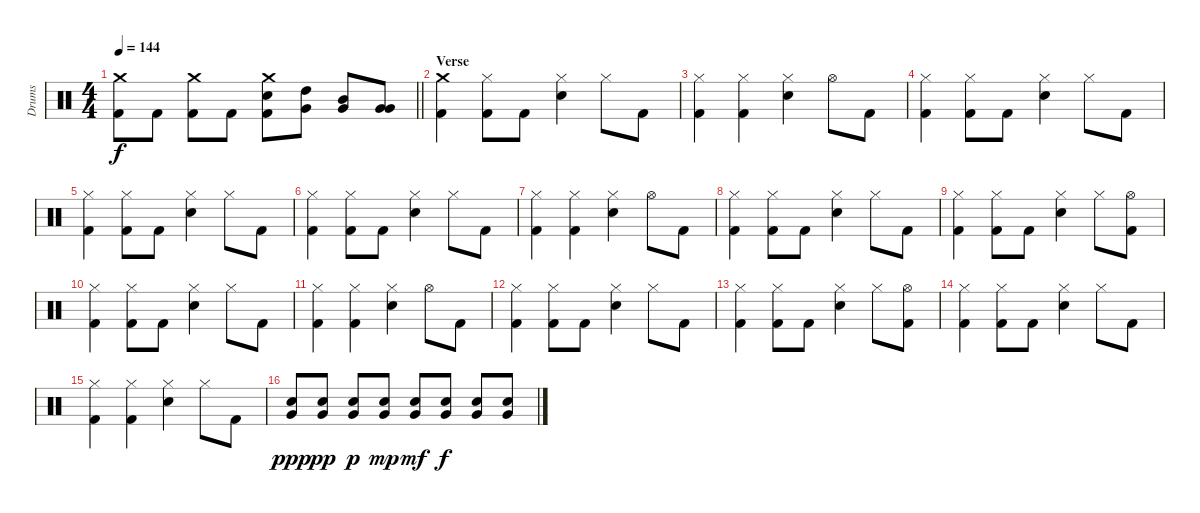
\track ("Drums" "Drums") {instrument percussion}
\staff {score}
\articulation defaults
\ts (4 4)
\tempo 144
\clef neutral
\barLineRight lightlight
\ks c
("Crash medium (hit)" "Kick (hit) 2").8{dy f} "Kick (hit) 2".8 ("Crash medium (hit)" "Kick (hit) 2").8 "Kick (hit) 2".8 ("Crash medium (hit)" "Electric Snare (hit)" "Kick (hit) 2").8 ("High Tom (hit)" "Very Low Tom (hit)").8 ("Mid Tom (hit)" "Very Low Tom (hit)").8 ("Very Low Tom (hit)" "Very Low Tom (hit)").8 |
\section ("" "Verse")
("Crash medium (hit)" "Kick (hit) 2").4 ("Hi-Hat (closed)" "Kick (hit) 2").8 "Kick (hit) 2".8 ("Hi-Hat (closed)" "Electric Snare (hit)").4 "Hi-Hat (closed)".8 "Kick (hit) 2".8 |
("Hi-Hat (closed)" "Kick (hit) 2").4 ("Hi-Hat (closed)" "Kick (hit) 2").4 ("Hi-Hat (closed)" "Electric Snare (hit)").4 "Hi-Hat (open)".8 "Kick (hit) 2".8 |
("Hi-Hat (closed)" "Kick (hit) 2").4 ("Hi-Hat (closed)" "Kick (hit) 2").8 "Kick (hit) 2".8 ("Hi-Hat (closed)" "Electric Snare (hit)").4 "Hi-Hat (closed)".8 "Kick (hit) 2".8 |
("Hi-Hat (closed)" "Kick (hit) 2").4 ("Hi-Hat (closed)" "Kick (hit) 2").8 "Kick (hit) 2".8 ("Hi-Hat (closed)" "Electric Snare (hit)").4 "Hi-Hat (closed)".8 "Kick (hit) 2".8 |
("Hi-Hat (closed)" "Kick (hit) 2").4 ("Hi-Hat (closed)" "Kick (hit) 2").8 "Kick (hit) 2".8 ("Hi-Hat (closed)" "Electric Snare (hit)").4 "Hi-Hat (closed)".8 "Kick (hit) 2".8 |
("Hi-Hat (closed)" "Kick (hit) 2").4 ("Hi-Hat (closed)" "Kick (hit) 2").4 ("Hi-Hat (closed)" "Electric Snare (hit)").4 "Hi-Hat (open)".8 "Kick (hit) 2".8 |
("Hi-Hat (closed)" "Kick (hit) 2").4 ("Hi-Hat (closed)" "Kick (hit) 2").8 "Kick (hit) 2".8 ("Hi-Hat (closed)" "Electric Snare (hit)").4 "Hi-Hat (closed)".8 "Kick (hit) 2".8 |
("Hi-Hat (closed)" "Kick (hit) 2").4 ("Hi-Hat (closed)" "Kick (hit) 2").8 "Kick (hit) 2".8 ("Hi-Hat (closed)" "Electric Snare (hit)").4 "Hi-Hat (closed)".8 ("Hi-Hat (open)" "Kick (hit) 2").8 |
("Hi-Hat (closed)" "Kick (hit) 2").4 ("Hi-Hat (closed)" "Kick (hit) 2").8 "Kick (hit) 2".8 ("Hi-Hat (closed)" "Electric Snare (hit)").4 "Hi-Hat (closed)".8 "Kick (hit) 2".8 |
("Hi-Hat (closed)" "Kick (hit) 2").4 ("Hi-Hat (closed)" "Kick (hit) 2").4 ("Hi-Hat (closed)" "Electric Snare (hit)").4 "Hi-Hat (open)".8 "Kick (hit) 2".8 |
("Hi-Hat (closed)" "Kick (hit) 2").4 ("Hi-Hat (closed)" "Kick (hit) 2").8 "Kick (hit) 2".8 ("Hi-Hat (closed)" "Electric Snare (hit)").4 "Hi-Hat (closed)".8 "Kick (hit) 2".8 |
("Hi-Hat (closed)" "Kick (hit) 2").4 ("Hi-Hat (closed)" "Kick (hit) 2").8 "Kick (hit) 2".8 ("Hi-Hat (closed)" "Electric Snare (hit)").4 "Hi-Hat (closed)".8 ("Hi-Hat (open)" "Kick (hit) 2").8 |
("Hi-Hat (closed)" "Kick (hit) 2").4 ("Hi-Hat (closed)" "Kick (hit) 2").8 "Kick (hit) 2".8 ("Hi-Hat (closed)" "Electric Snare (hit)").4 "Hi-Hat (closed)".8 "Kick (hit) 2".8 |
("Hi-Hat (closed)" "Kick (hit) 2").4 ("Hi-Hat (closed)" "Kick (hit) 2").4 ("Hi-Hat (closed)" "Electric Snare (hit)").4 "Hi-Hat (closed)".8 "Kick (hit) 2".8 |
("Very Low Tom (hit)" "Electric Snare (hit)").8{dy ppp} ("Very Low Tom (hit)" "Electric Snare (hit)").8{dy pp} ("Very Low Tom (hit)" "Electric Snare (hit)").8{dy p} ("Very Low Tom (hit)" "Electric Snare (hit)").8{dy mp} ("Very Low Tom (hit)" "Electric Snare (hit)").8{dy mf} ("Very Low Tom (hit)" "Electric Snare (hit)").8{dy f} ("Very Low Tom (hit)" "Electric Snare (hit)").8 ("Very Low Tom (hit)" "Electric Snare (hit)").8
